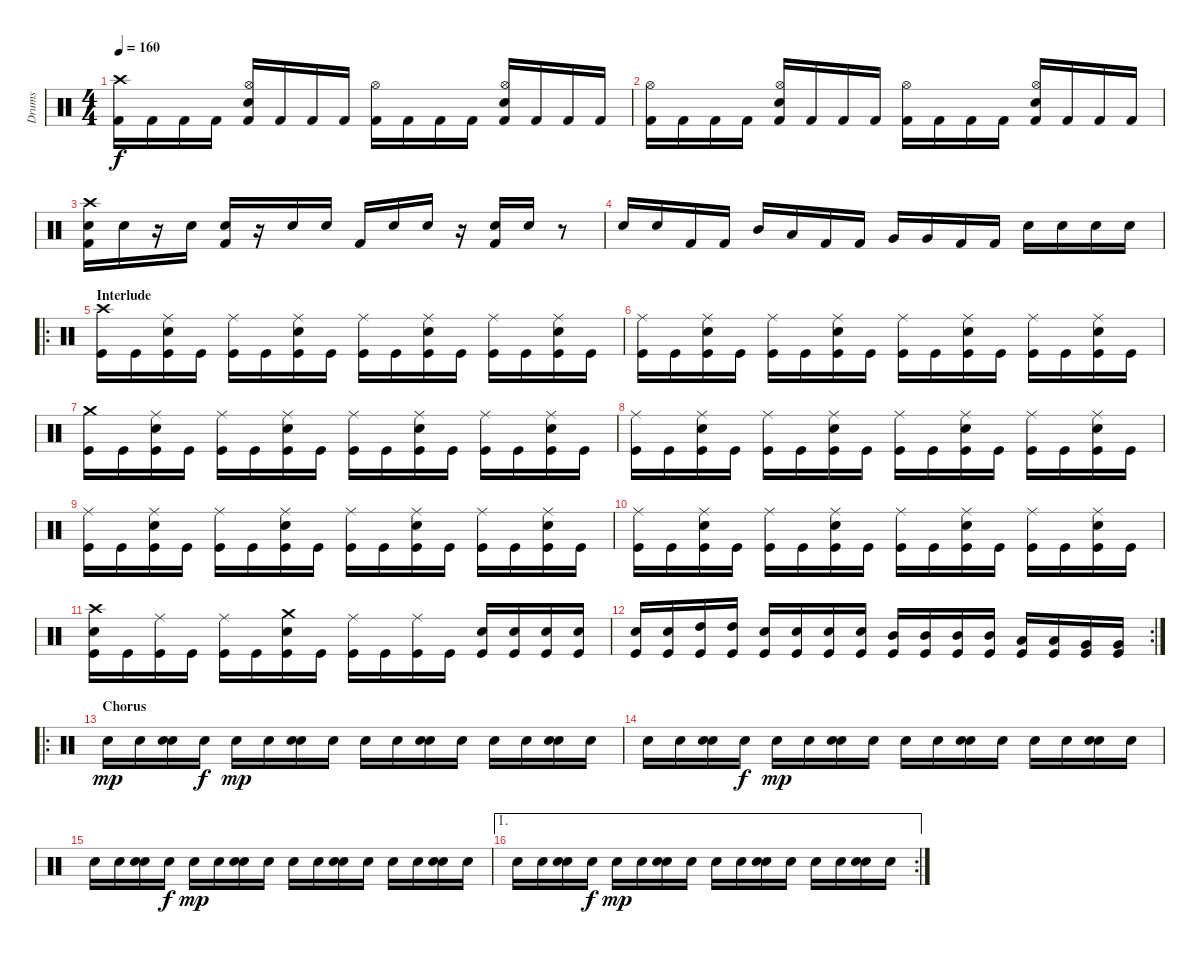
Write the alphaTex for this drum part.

\track ("Drums" "Drums") {instrument percussion}
\staff {score}
\articulation defaults
\ts (4 4)
\tempo 160
\clef neutral
\ks c
("Crash high (hit)" "Kick (hit) 2").16{dy f} "Kick (hit) 2".16 "Kick (hit) 2".16 "Kick (hit) 2".16 ("Hi-Hat (open)" "Electric Snare (hit)" "Kick (hit) 2").16 "Kick (hit) 2".16 "Kick (hit) 2".16 "Kick (hit) 2".16 ("Hi-Hat (open)" "Kick (hit) 2").16 "Kick (hit) 2".16 "Kick (hit) 2".16 "Kick (hit) 2".16 ("Hi-Hat (open)" "Electric Snare (hit)" "Kick (hit) 2").16 "Kick (hit) 2".16 "Kick (hit) 2".16 "Kick (hit) 2".16 |
("Hi-Hat (open)" "Kick (hit) 2").16 "Kick (hit) 2".16 "Kick (hit) 2".16 "Kick (hit) 2".16 ("Hi-Hat (open)" "Electric Snare (hit)" "Kick (hit) 2").16 "Kick (hit) 2".16 "Kick (hit) 2".16 "Kick (hit) 2".16 ("Hi-Hat (open)" "Kick (hit) 2").16 "Kick (hit) 2".16 "Kick (hit) 2".16 "Kick (hit) 2".16 ("Hi-Hat (open)" "Electric Snare (hit)" "Kick (hit) 2").16 "Kick (hit) 2".16 "Kick (hit) 2".16 "Kick (hit) 2".16 |
("Crash high (hit)" "Electric Snare (hit)" "Kick (hit) 2").16 "Electric Snare (hit)".16 r.16 "Electric Snare (hit)".16 ("Electric Snare (hit)" "Kick (hit) 2").16 r.16 "Electric Snare (hit)".16 "Electric Snare (hit)".16 "Kick (hit) 2".16 "Electric Snare (hit)".16 "Electric Snare (hit)".16 r.16 ("Electric Snare (hit)" "Kick (hit) 2").16 "Electric Snare (hit)".16 r.8 |
"Electric Snare (hit)".16 "Electric Snare (hit)".16 "Kick (hit) 2".16 "Kick (hit) 2".16 "Mid Tom (hit)".16 "Low Tom (hit)".16 "Kick (hit) 2".16 "Kick (hit) 2".16 "Very Low Tom (hit)".16 "Very Low Tom (hit)".16 "Kick (hit) 2".16 "Kick (hit) 2".16 "Electric Snare (hit)".16 "Electric Snare (hit)".16 "Electric Snare (hit)".16 "Electric Snare (hit)".16 |
\ro
\section ("" "Interlude")
("Crash high (hit)" "Kick (hit)").16 "Kick (hit)".16 ("Ride (middle)" "Electric Snare (hit)" "Kick (hit)").16 "Kick (hit)".16 ("Ride (middle)" "Kick (hit)").16 "Kick (hit)".16 ("Ride (middle)" "Electric Snare (hit)" "Kick (hit)").16 "Kick (hit)".16 ("Ride (middle)" "Kick (hit)").16 "Kick (hit)".16 ("Ride (middle)" "Electric Snare (hit)" "Kick (hit)").16 "Kick (hit)".16 ("Ride (middle)" "Kick (hit)").16 "Kick (hit)".16 ("Ride (middle)" "Electric Snare (hit)" "Kick (hit)").16 "Kick (hit)".16 |
("Ride (middle)" "Kick (hit)").16 "Kick (hit)".16 ("Ride (middle)" "Electric Snare (hit)" "Kick (hit)").16 "Kick (hit)".16 ("Ride (middle)" "Kick (hit)").16 "Kick (hit)".16 ("Ride (middle)" "Electric Snare (hit)" "Kick (hit)").16 "Kick (hit)".16 ("Ride (middle)" "Kick (hit)").16 "Kick (hit)".16 ("Ride (middle)" "Electric Snare (hit)" "Kick (hit)").16 "Kick (hit)".16 ("Ride (middle)" "Kick (hit)").16 "Kick (hit)".16 ("Ride (middle)" "Electric Snare (hit)" "Kick (hit)").16 "Kick (hit)".16 |
("Crash medium (hit)" "Kick (hit)").16 "Kick (hit)".16 ("Ride (middle)" "Electric Snare (hit)" "Kick (hit)").16 "Kick (hit)".16 ("Ride (middle)" "Kick (hit)").16 "Kick (hit)".16 ("Ride (middle)" "Electric Snare (hit)" "Kick (hit)").16 "Kick (hit)".16 ("Ride (middle)" "Kick (hit)").16 "Kick (hit)".16 ("Ride (middle)" "Electric Snare (hit)" "Kick (hit)").16 "Kick (hit)".16 ("Ride (middle)" "Kick (hit)").16 "Kick (hit)".16 ("Ride (middle)" "Electric Snare (hit)" "Kick (hit)").16 "Kick (hit)".16 |
("Ride (middle)" "Kick (hit)").16 "Kick (hit)".16 ("Ride (middle)" "Electric Snare (hit)" "Kick (hit)").16 "Kick (hit)".16 ("Ride (middle)" "Kick (hit)").16 "Kick (hit)".16 ("Ride (middle)" "Electric Snare (hit)" "Kick (hit)").16 "Kick (hit)".16 ("Ride (middle)" "Kick (hit)").16 "Kick (hit)".16 ("Ride (middle)" "Electric Snare (hit)" "Kick (hit)").16 "Kick (hit)".16 ("Ride (middle)" "Kick (hit)").16 "Kick (hit)".16 ("Ride (middle)" "Electric Snare (hit)" "Kick (hit)").16 "Kick (hit)".16 |
("Ride (middle)" "Kick (hit)").16 "Kick (hit)".16 ("Ride (middle)" "Electric Snare (hit)" "Kick (hit)").16 "Kick (hit)".16 ("Ride (middle)" "Kick (hit)").16 "Kick (hit)".16 ("Ride (middle)" "Electric Snare (hit)" "Kick (hit)").16 "Kick (hit)".16 ("Ride (middle)" "Kick (hit)").16 "Kick (hit)".16 ("Ride (middle)" "Electric Snare (hit)" "Kick (hit)").16 "Kick (hit)".16 ("Ride (middle)" "Kick (hit)").16 "Kick (hit)".16 ("Ride (middle)" "Electric Snare (hit)" "Kick (hit)").16 "Kick (hit)".16 |
("Ride (middle)" "Kick (hit)").16 "Kick (hit)".16 ("Ride (middle)" "Electric Snare (hit)" "Kick (hit)").16 "Kick (hit)".16 ("Ride (middle)" "Kick (hit)").16 "Kick (hit)".16 ("Ride (middle)" "Electric Snare (hit)" "Kick (hit)").16 "Kick (hit)".16 ("Ride (middle)" "Kick (hit)").16 "Kick (hit)".16 ("Ride (middle)" "Electric Snare (hit)" "Kick (hit)").16 "Kick (hit)".16 ("Ride (middle)" "Kick (hit)").16 "Kick (hit)".16 ("Ride (middle)" "Electric Snare (hit)" "Kick (hit)").16 "Kick (hit)".16 |
("Crash high (hit)" "Electric Snare (hit)" "Kick (hit)").16 "Kick (hit)".16 ("Ride (middle)" "Kick (hit)").16 "Kick (hit)".16 ("Ride (middle)" "Kick (hit)").16 "Kick (hit)".16 ("Crash medium (hit)" "Electric Snare (hit)" "Kick (hit)").16 "Kick (hit)".16 ("Ride (middle)" "Kick (hit)").16 "Kick (hit)".16 ("Ride (middle)" "Kick (hit)").16 "Kick (hit)".16 ("Electric Snare (hit)" "Kick (hit)").16 ("Electric Snare (hit)" "Kick (hit)").16 ("Electric Snare (hit)" "Kick (hit)").16 ("Electric Snare (hit)" "Kick (hit)").16 |
\rc 2
("Electric Snare (hit)" "Kick (hit)").16 ("Electric Snare (hit)" "Kick (hit)").16 ("High Tom (hit)" "Kick (hit)").16 ("High Tom (hit)" "Kick (hit)").16 ("Electric Snare (hit)" "Kick (hit)").16 ("Electric Snare (hit)" "Kick (hit)").16 ("Electric Snare (hit)" "Kick (hit)").16 ("Electric Snare (hit)" "Kick (hit)").16 ("Mid Tom (hit)" "Kick (hit)").16 ("Mid Tom (hit)" "Kick (hit)").16 ("Mid Tom (hit)" "Kick (hit)").16 ("Mid Tom (hit)" "Kick (hit)").16 ("Low Tom (hit)" "Kick (hit)").16 ("Low Tom (hit)" "Kick (hit)").16 ("Very Low Tom (hit)" "Kick (hit)").16 ("Very Low Tom (hit)" "Kick (hit)").16 |
\ro
\section ("" "Chorus")
"Snare (hit) 2".16{dy mp} "Snare (hit) 2".16 ("Electric Snare (hit)" "Snare (hit) 2").16 "Snare (hit) 2".16{dy f} "Snare (hit) 2".16{dy mp} "Snare (hit) 2".16 ("Electric Snare (hit)" "Snare (hit) 2").16 "Snare (hit) 2".16 "Snare (hit) 2".16 "Snare (hit) 2".16 ("Electric Snare (hit)" "Snare (hit) 2").16 "Snare (hit) 2".16 "Snare (hit) 2".16 "Snare (hit) 2".16 ("Electric Snare (hit)" "Snare (hit) 2").16 "Snare (hit) 2".16 |
"Snare (hit) 2".16 "Snare (hit) 2".16 ("Electric Snare (hit)" "Snare (hit) 2").16 "Snare (hit) 2".16{dy f} "Snare (hit) 2".16{dy mp} "Snare (hit) 2".16 ("Electric Snare (hit)" "Snare (hit) 2").16 "Snare (hit) 2".16 "Snare (hit) 2".16 "Snare (hit) 2".16 ("Electric Snare (hit)" "Snare (hit) 2").16 "Snare (hit) 2".16 "Snare (hit) 2".16 "Snare (hit) 2".16 ("Electric Snare (hit)" "Snare (hit) 2").16 "Snare (hit) 2".16 |
"Snare (hit) 2".16 "Snare (hit) 2".16 ("Electric Snare (hit)" "Snare (hit) 2").16 "Snare (hit) 2".16{dy f} "Snare (hit) 2".16{dy mp} "Snare (hit) 2".16 ("Electric Snare (hit)" "Snare (hit) 2").16 "Snare (hit) 2".16 "Snare (hit) 2".16 "Snare (hit) 2".16 ("Electric Snare (hit)" "Snare (hit) 2").16 "Snare (hit) 2".16 "Snare (hit) 2".16 "Snare (hit) 2".16 ("Electric Snare (hit)" "Snare (hit) 2").16 "Snare (hit) 2".16 |
\ae 1
\rc 2 "Snare (hit) 2".16 "Snare (hit) 2".16
("Electric Snare (hit)" "Snare (hit) 2").16 "Snare (hit) 2".16{dy f} "Snare (hit) 2".16{dy mp} "Snare (hit) 2".16 ("Electric Snare (hit)" "Snare (hit) 2").16 "Snare (hit) 2".16 "Snare (hit) 2".16 "Snare (hit) 2".16 ("Electric Snare (hit)" "Snare (hit) 2").16 "Snare (hit) 2".16 "Snare (hit) 2".16 "Snare (hit) 2".16 ("Electric Snare (hit)" "Snare (hit) 2").16 "Snare (hit) 2".16
